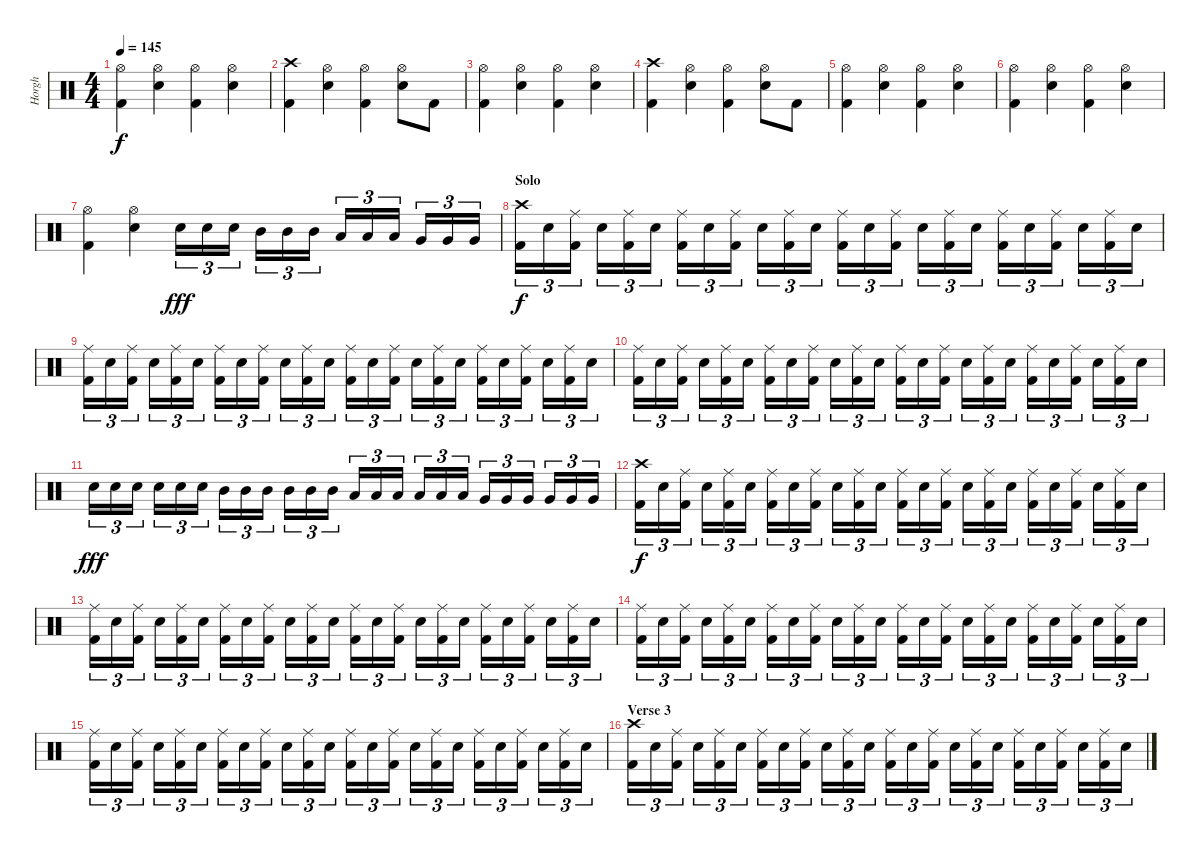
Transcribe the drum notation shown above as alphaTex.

\track ("Horgh" "Horgh") {instrument percussion}
\staff {score}
\articulation defaults
\ts (4 4)
\tempo 145
\clef neutral
\ks c
("Hi-Hat (open)" "Kick (hit) 2").4{dy f} ("Hi-Hat (open)" "Electric Snare (hit)").4 ("Hi-Hat (open)" "Kick (hit) 2").4 ("Hi-Hat (open)" "Electric Snare (hit)").4 |
("Crash high (hit)" "Kick (hit) 2").4 ("Hi-Hat (open)" "Electric Snare (hit)").4 ("Hi-Hat (open)" "Kick (hit) 2").4 ("Hi-Hat (open)" "Electric Snare (hit)").8 "Kick (hit) 2".8 |
("Hi-Hat (open)" "Kick (hit) 2").4 ("Hi-Hat (open)" "Electric Snare (hit)").4 ("Hi-Hat (open)" "Kick (hit) 2").4 ("Hi-Hat (open)" "Electric Snare (hit)").4 |
("Crash high (hit)" "Kick (hit) 2").4 ("Hi-Hat (open)" "Electric Snare (hit)").4 ("Hi-Hat (open)" "Kick (hit) 2").4 ("Hi-Hat (open)" "Electric Snare (hit)").8 "Kick (hit) 2".8 |
("Hi-Hat (open)" "Kick (hit) 2").4 ("Hi-Hat (open)" "Electric Snare (hit)").4 ("Hi-Hat (open)" "Kick (hit) 2").4 ("Hi-Hat (open)" "Electric Snare (hit)").4 |
("Hi-Hat (open)" "Kick (hit) 2").4 ("Hi-Hat (open)" "Electric Snare (hit)").4 ("Hi-Hat (open)" "Kick (hit) 2").4 ("Hi-Hat (open)" "Electric Snare (hit)").4 |
("Hi-Hat (open)" "Kick (hit) 2").4 ("Hi-Hat (open)" "Electric Snare (hit)").4 "Electric Snare (hit)".16{tu (3 2) dy fff} "Electric Snare (hit)".16{tu (3 2)} "Electric Snare (hit)".16{tu (3 2)} "Mid Tom (hit)".16{tu (3 2)} "Mid Tom (hit)".16{tu (3 2)} "Mid Tom (hit)".16{tu (3 2)} "Low Tom (hit)".16{tu (3 2)} "Low Tom (hit)".16{tu (3 2)} "Low Tom (hit)".16{tu (3 2)} "Very Low Tom (hit)".16{tu (3 2)} "Very Low Tom (hit)".16{tu (3 2)} "Very Low Tom (hit)".16{tu (3 2)} |
\section ("" "Solo")
("Crash high (hit)" "Kick (hit) 2").16{tu (3 2) dy f} "Electric Snare (hit)".16{tu (3 2)} ("Ride (middle)" "Kick (hit) 2").16{tu (3 2)} "Electric Snare (hit)".16{tu (3 2)} ("Ride (middle)" "Kick (hit) 2").16{tu (3 2)} "Electric Snare (hit)".16{tu (3 2)} ("Ride (middle)" "Kick (hit) 2").16{tu (3 2)} "Electric Snare (hit)".16{tu (3 2)} ("Ride (middle)" "Kick (hit) 2").16{tu (3 2)} "Electric Snare (hit)".16{tu (3 2)} ("Ride (middle)" "Kick (hit) 2").16{tu (3 2)} "Electric Snare (hit)".16{tu (3 2)} ("Ride (middle)" "Kick (hit) 2").16{tu (3 2)} "Electric Snare (hit)".16{tu (3 2)} ("Ride (middle)" "Kick (hit) 2").16{tu (3 2)} "Electric Snare (hit)".16{tu (3 2)} ("Ride (middle)" "Kick (hit) 2").16{tu (3 2)} "Electric Snare (hit)".16{tu (3 2)} ("Ride (middle)" "Kick (hit) 2").16{tu (3 2)} "Electric Snare (hit)".16{tu (3 2)} ("Ride (middle)" "Kick (hit) 2").16{tu (3 2)} "Electric Snare (hit)".16{tu (3 2)} ("Ride (middle)" "Kick (hit) 2").16{tu (3 2)} "Electric Snare (hit)".16{tu (3 2)} |
("Ride (middle)" "Kick (hit) 2").16{tu (3 2)} "Electric Snare (hit)".16{tu (3 2)} ("Ride (middle)" "Kick (hit) 2").16{tu (3 2)} "Electric Snare (hit)".16{tu (3 2)} ("Ride (middle)" "Kick (hit) 2").16{tu (3 2)} "Electric Snare (hit)".16{tu (3 2)} ("Ride (middle)" "Kick (hit) 2").16{tu (3 2)} "Electric Snare (hit)".16{tu (3 2)} ("Ride (middle)" "Kick (hit) 2").16{tu (3 2)} "Electric Snare (hit)".16{tu (3 2)} ("Ride (middle)" "Kick (hit) 2").16{tu (3 2)} "Electric Snare (hit)".16{tu (3 2)} ("Ride (middle)" "Kick (hit) 2").16{tu (3 2)} "Electric Snare (hit)".16{tu (3 2)} ("Ride (middle)" "Kick (hit) 2").16{tu (3 2)} "Electric Snare (hit)".16{tu (3 2)} ("Ride (middle)" "Kick (hit) 2").16{tu (3 2)} "Electric Snare (hit)".16{tu (3 2)} ("Ride (middle)" "Kick (hit) 2").16{tu (3 2)} "Electric Snare (hit)".16{tu (3 2)} ("Ride (middle)" "Kick (hit) 2").16{tu (3 2)} "Electric Snare (hit)".16{tu (3 2)} ("Ride (middle)" "Kick (hit) 2").16{tu (3 2)} "Electric Snare (hit)".16{tu (3 2)} |
("Ride (middle)" "Kick (hit) 2").16{tu (3 2)} "Electric Snare (hit)".16{tu (3 2)} ("Ride (middle)" "Kick (hit) 2").16{tu (3 2)} "Electric Snare (hit)".16{tu (3 2)} ("Ride (middle)" "Kick (hit) 2").16{tu (3 2)} "Electric Snare (hit)".16{tu (3 2)} ("Ride (middle)" "Kick (hit) 2").16{tu (3 2)} "Electric Snare (hit)".16{tu (3 2)} ("Ride (middle)" "Kick (hit) 2").16{tu (3 2)} "Electric Snare (hit)".16{tu (3 2)} ("Ride (middle)" "Kick (hit) 2").16{tu (3 2)} "Electric Snare (hit)".16{tu (3 2)} ("Ride (middle)" "Kick (hit) 2").16{tu (3 2)} "Electric Snare (hit)".16{tu (3 2)} ("Ride (middle)" "Kick (hit) 2").16{tu (3 2)} "Electric Snare (hit)".16{tu (3 2)} ("Ride (middle)" "Kick (hit) 2").16{tu (3 2)} "Electric Snare (hit)".16{tu (3 2)} ("Ride (middle)" "Kick (hit) 2").16{tu (3 2)} "Electric Snare (hit)".16{tu (3 2)} ("Ride (middle)" "Kick (hit) 2").16{tu (3 2)} "Electric Snare (hit)".16{tu (3 2)} ("Ride (middle)" "Kick (hit) 2").16{tu (3 2)} "Electric Snare (hit)".16{tu (3 2)} |
"Electric Snare (hit)".16{tu (3 2) dy fff} "Electric Snare (hit)".16{tu (3 2)} "Electric Snare (hit)".16{tu (3 2)} "Electric Snare (hit)".16{tu (3 2)} "Electric Snare (hit)".16{tu (3 2)} "Electric Snare (hit)".16{tu (3 2)} "Mid Tom (hit)".16{tu (3 2)} "Mid Tom (hit)".16{tu (3 2)} "Mid Tom (hit)".16{tu (3 2)} "Mid Tom (hit)".16{tu (3 2)} "Mid Tom (hit)".16{tu (3 2)} "Mid Tom (hit)".16{tu (3 2)} "Low Tom (hit)".16{tu (3 2)} "Low Tom (hit)".16{tu (3 2)} "Low Tom (hit)".16{tu (3 2)} "Low Tom (hit)".16{tu (3 2)} "Low Tom (hit)".16{tu (3 2)} "Low Tom (hit)".16{tu (3 2)} "Very Low Tom (hit)".16{tu (3 2)} "Very Low Tom (hit)".16{tu (3 2)} "Very Low Tom (hit)".16{tu (3 2)} "Very Low Tom (hit)".16{tu (3 2)} "Very Low Tom (hit)".16{tu (3 2)} "Very Low Tom (hit)".16{tu (3 2)} |
("Crash high (hit)" "Kick (hit) 2").16{tu (3 2) dy f} "Electric Snare (hit)".16{tu (3 2)} ("Ride (middle)" "Kick (hit) 2").16{tu (3 2)} "Electric Snare (hit)".16{tu (3 2)} ("Ride (middle)" "Kick (hit) 2").16{tu (3 2)} "Electric Snare (hit)".16{tu (3 2)} ("Ride (middle)" "Kick (hit) 2").16{tu (3 2)} "Electric Snare (hit)".16{tu (3 2)} ("Ride (middle)" "Kick (hit) 2").16{tu (3 2)} "Electric Snare (hit)".16{tu (3 2)} ("Ride (middle)" "Kick (hit) 2").16{tu (3 2)} "Electric Snare (hit)".16{tu (3 2)} ("Ride (middle)" "Kick (hit) 2").16{tu (3 2)} "Electric Snare (hit)".16{tu (3 2)} ("Ride (middle)" "Kick (hit) 2").16{tu (3 2)} "Electric Snare (hit)".16{tu (3 2)} ("Ride (middle)" "Kick (hit) 2").16{tu (3 2)} "Electric Snare (hit)".16{tu (3 2)} ("Ride (middle)" "Kick (hit) 2").16{tu (3 2)} "Electric Snare (hit)".16{tu (3 2)} ("Ride (middle)" "Kick (hit) 2").16{tu (3 2)} "Electric Snare (hit)".16{tu (3 2)} ("Ride (middle)" "Kick (hit) 2").16{tu (3 2)} "Electric Snare (hit)".16{tu (3 2)} |
("Ride (middle)" "Kick (hit) 2").16{tu (3 2)} "Electric Snare (hit)".16{tu (3 2)} ("Ride (middle)" "Kick (hit) 2").16{tu (3 2)} "Electric Snare (hit)".16{tu (3 2)} ("Ride (middle)" "Kick (hit) 2").16{tu (3 2)} "Electric Snare (hit)".16{tu (3 2)} ("Ride (middle)" "Kick (hit) 2").16{tu (3 2)} "Electric Snare (hit)".16{tu (3 2)} ("Ride (middle)" "Kick (hit) 2").16{tu (3 2)} "Electric Snare (hit)".16{tu (3 2)} ("Ride (middle)" "Kick (hit) 2").16{tu (3 2)} "Electric Snare (hit)".16{tu (3 2)} ("Ride (middle)" "Kick (hit) 2").16{tu (3 2)} "Electric Snare (hit)".16{tu (3 2)} ("Ride (middle)" "Kick (hit) 2").16{tu (3 2)} "Electric Snare (hit)".16{tu (3 2)} ("Ride (middle)" "Kick (hit) 2").16{tu (3 2)} "Electric Snare (hit)".16{tu (3 2)} ("Ride (middle)" "Kick (hit) 2").16{tu (3 2)} "Electric Snare (hit)".16{tu (3 2)} ("Ride (middle)" "Kick (hit) 2").16{tu (3 2)} "Electric Snare (hit)".16{tu (3 2)} ("Ride (middle)" "Kick (hit) 2").16{tu (3 2)} "Electric Snare (hit)".16{tu (3 2)} |
("Ride (middle)" "Kick (hit) 2").16{tu (3 2)} "Electric Snare (hit)".16{tu (3 2)} ("Ride (middle)" "Kick (hit) 2").16{tu (3 2)} "Electric Snare (hit)".16{tu (3 2)} ("Ride (middle)" "Kick (hit) 2").16{tu (3 2)} "Electric Snare (hit)".16{tu (3 2)} ("Ride (middle)" "Kick (hit) 2").16{tu (3 2)} "Electric Snare (hit)".16{tu (3 2)} ("Ride (middle)" "Kick (hit) 2").16{tu (3 2)} "Electric Snare (hit)".16{tu (3 2)} ("Ride (middle)" "Kick (hit) 2").16{tu (3 2)} "Electric Snare (hit)".16{tu (3 2)} ("Ride (middle)" "Kick (hit) 2").16{tu (3 2)} "Electric Snare (hit)".16{tu (3 2)} ("Ride (middle)" "Kick (hit) 2").16{tu (3 2)} "Electric Snare (hit)".16{tu (3 2)} ("Ride (middle)" "Kick (hit) 2").16{tu (3 2)} "Electric Snare (hit)".16{tu (3 2)} ("Ride (middle)" "Kick (hit) 2").16{tu (3 2)} "Electric Snare (hit)".16{tu (3 2)} ("Ride (middle)" "Kick (hit) 2").16{tu (3 2)} "Electric Snare (hit)".16{tu (3 2)} ("Ride (middle)" "Kick (hit) 2").16{tu (3 2)} "Electric Snare (hit)".16{tu (3 2)} |
("Ride (middle)" "Kick (hit) 2").16{tu (3 2)} "Electric Snare (hit)".16{tu (3 2)} ("Ride (middle)" "Kick (hit) 2").16{tu (3 2)} "Electric Snare (hit)".16{tu (3 2)} ("Ride (middle)" "Kick (hit) 2").16{tu (3 2)} "Electric Snare (hit)".16{tu (3 2)} ("Ride (middle)" "Kick (hit) 2").16{tu (3 2)} "Electric Snare (hit)".16{tu (3 2)} ("Ride (middle)" "Kick (hit) 2").16{tu (3 2)} "Electric Snare (hit)".16{tu (3 2)} ("Ride (middle)" "Kick (hit) 2").16{tu (3 2)} "Electric Snare (hit)".16{tu (3 2)} ("Ride (middle)" "Kick (hit) 2").16{tu (3 2)} "Electric Snare (hit)".16{tu (3 2)} ("Ride (middle)" "Kick (hit) 2").16{tu (3 2)} "Electric Snare (hit)".16{tu (3 2)} ("Ride (middle)" "Kick (hit) 2").16{tu (3 2)} "Electric Snare (hit)".16{tu (3 2)} ("Ride (middle)" "Kick (hit) 2").16{tu (3 2)} "Electric Snare (hit)".16{tu (3 2)} ("Ride (middle)" "Kick (hit) 2").16{tu (3 2)} "Electric Snare (hit)".16{tu (3 2)} ("Ride (middle)" "Kick (hit) 2").16{tu (3 2)} "Electric Snare (hit)".16{tu (3 2)} |
\section ("" "Verse 3")
("Crash high (hit)" "Kick (hit) 2").16{tu (3 2)} "Electric Snare (hit)".16{tu (3 2)} ("Ride (middle)" "Kick (hit) 2").16{tu (3 2)} "Electric Snare (hit)".16{tu (3 2)} ("Ride (middle)" "Kick (hit) 2").16{tu (3 2)} "Electric Snare (hit)".16{tu (3 2)} ("Ride (middle)" "Kick (hit) 2").16{tu (3 2)} "Electric Snare (hit)".16{tu (3 2)} ("Ride (middle)" "Kick (hit) 2").16{tu (3 2)} "Electric Snare (hit)".16{tu (3 2)} ("Ride (middle)" "Kick (hit) 2").16{tu (3 2)} "Electric Snare (hit)".16{tu (3 2)} ("Ride (middle)" "Kick (hit) 2").16{tu (3 2)} "Electric Snare (hit)".16{tu (3 2)} ("Ride (middle)" "Kick (hit) 2").16{tu (3 2)} "Electric Snare (hit)".16{tu (3 2)} ("Ride (middle)" "Kick (hit) 2").16{tu (3 2)} "Electric Snare (hit)".16{tu (3 2)} ("Ride (middle)" "Kick (hit) 2").16{tu (3 2)} "Electric Snare (hit)".16{tu (3 2)} ("Ride (middle)" "Kick (hit) 2").16{tu (3 2)} "Electric Snare (hit)".16{tu (3 2)} ("Ride (middle)" "Kick (hit) 2").16{tu (3 2)} "Electric Snare (hit)".16{tu (3 2)}
